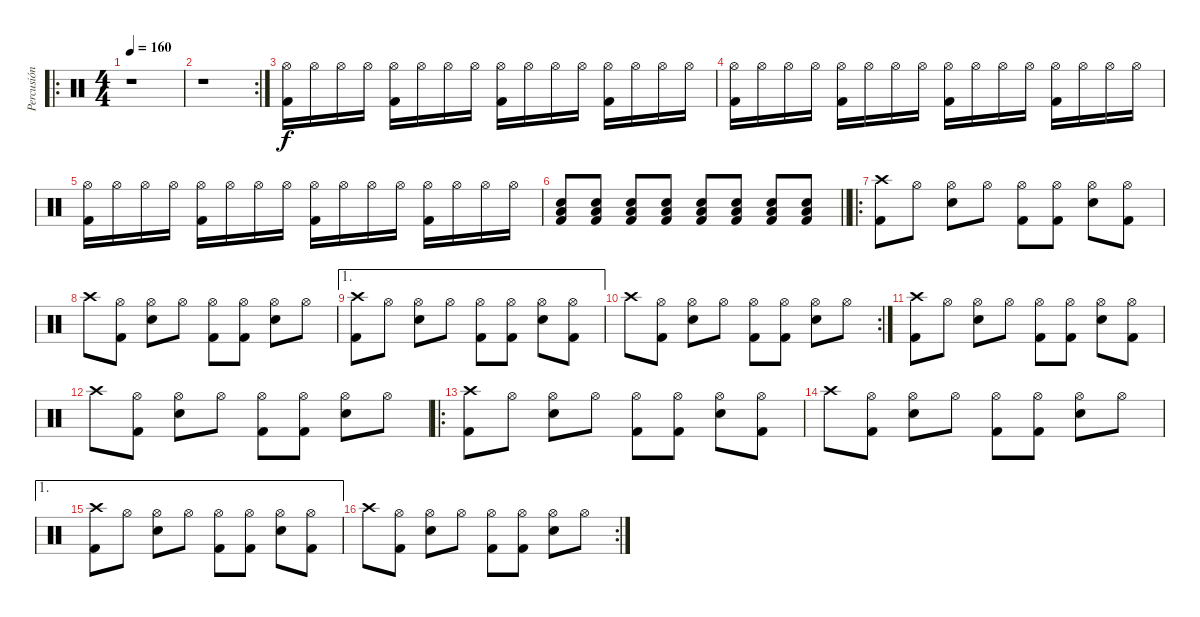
\track ("Percusión (Nevi)" "Percusión ") {instrument percussion}
\staff {score}
\articulation defaults
\ro
\ts (4 4)
\tempo 160
\clef neutral
\ks c
r.1{dy f} |
\rc 2
r.1 |
("Kick (hit) 2" "Hi-Hat (open)").16 "Hi-Hat (open)".16 "Hi-Hat (open)".16 "Hi-Hat (open)".16 ("Kick (hit) 2" "Hi-Hat (open)").16 "Hi-Hat (open)".16 "Hi-Hat (open)".16 "Hi-Hat (open)".16 ("Kick (hit) 2" "Hi-Hat (open)").16 "Hi-Hat (open)".16 "Hi-Hat (open)".16 "Hi-Hat (open)".16 ("Kick (hit) 2" "Hi-Hat (open)").16 "Hi-Hat (open)".16 "Hi-Hat (open)".16 "Hi-Hat (open)".16 |
("Kick (hit) 2" "Hi-Hat (open)").16 "Hi-Hat (open)".16 "Hi-Hat (open)".16 "Hi-Hat (open)".16 ("Kick (hit) 2" "Hi-Hat (open)").16 "Hi-Hat (open)".16 "Hi-Hat (open)".16 "Hi-Hat (open)".16 ("Kick (hit) 2" "Hi-Hat (open)").16 "Hi-Hat (open)".16 "Hi-Hat (open)".16 "Hi-Hat (open)".16 ("Kick (hit) 2" "Hi-Hat (open)").16 "Hi-Hat (open)".16 "Hi-Hat (open)".16 "Hi-Hat (open)".16 |
("Kick (hit) 2" "Hi-Hat (open)").16 "Hi-Hat (open)".16 "Hi-Hat (open)".16 "Hi-Hat (open)".16 ("Kick (hit) 2" "Hi-Hat (open)").16 "Hi-Hat (open)".16 "Hi-Hat (open)".16 "Hi-Hat (open)".16 ("Kick (hit) 2" "Hi-Hat (open)").16 "Hi-Hat (open)".16 "Hi-Hat (open)".16 "Hi-Hat (open)".16 ("Kick (hit) 2" "Hi-Hat (open)").16 "Hi-Hat (open)".16 "Hi-Hat (open)".16 "Hi-Hat (open)".16 |
\barLineRight lightlight
("Kick (hit) 2" "Low Tom (hit)" "Snare (hit) 2").8 ("Kick (hit) 2" "Low Tom (hit)" "Snare (hit) 2").8 ("Kick (hit) 2" "Low Tom (hit)" "Snare (hit) 2").8 ("Kick (hit) 2" "Low Tom (hit)" "Snare (hit) 2").8 ("Kick (hit) 2" "Low Tom (hit)" "Snare (hit) 2").8 ("Kick (hit) 2" "Low Tom (hit)" "Snare (hit) 2").8 ("Kick (hit) 2" "Low Tom (hit)" "Snare (hit) 2").8 ("Kick (hit) 2" "Low Tom (hit)" "Snare (hit) 2").8 |
\ro
("Kick (hit) 2" "Crash high (hit)").8 "Hi-Hat (open)".8 ("Hi-Hat (open)" "Snare (hit) 2").8 "Hi-Hat (open)".8 ("Kick (hit) 2" "Hi-Hat (open)").8 ("Kick (hit) 2" "Hi-Hat (open)").8 ("Hi-Hat (open)" "Snare (hit) 2").8 ("Kick (hit) 2" "Hi-Hat (open)").8 |
"Crash high (hit)".8 ("Kick (hit) 2" "Hi-Hat (open)").8 ("Hi-Hat (open)" "Snare (hit) 2").8 "Hi-Hat (open)".8 ("Kick (hit) 2" "Hi-Hat (open)").8 ("Kick (hit) 2" "Hi-Hat (open)").8 ("Hi-Hat (open)" "Snare (hit) 2").8 "Hi-Hat (open)".8 |
\ae 1
("Kick (hit) 2" "Crash high (hit)").8 "Hi-Hat (open)".8 ("Hi-Hat (open)" "Snare (hit) 2").8 "Hi-Hat (open)".8 ("Kick (hit) 2" "Hi-Hat (open)").8 ("Kick (hit) 2" "Hi-Hat (open)").8 ("Hi-Hat (open)" "Snare (hit) 2").8 ("Kick (hit) 2" "Hi-Hat (open)").8 |
\rc 2 "Crash high (hit)".8
("Kick (hit) 2" "Hi-Hat (open)").8 ("Hi-Hat (open)" "Snare (hit) 2").8 "Hi-Hat (open)".8 ("Kick (hit) 2" "Hi-Hat (open)").8 ("Kick (hit) 2" "Hi-Hat (open)").8 ("Hi-Hat (open)" "Snare (hit) 2").8 "Hi-Hat (open)".8 |
("Kick (hit) 2" "Crash high (hit)").8 "Hi-Hat (open)".8 ("Hi-Hat (open)" "Snare (hit) 2").8 "Hi-Hat (open)".8 ("Kick (hit) 2" "Hi-Hat (open)").8 ("Kick (hit) 2" "Hi-Hat (open)").8 ("Hi-Hat (open)" "Snare (hit) 2").8 ("Kick (hit) 2" "Hi-Hat (open)").8 |
"Crash high (hit)".8 ("Kick (hit) 2" "Hi-Hat (open)").8 ("Hi-Hat (open)" "Snare (hit) 2").8 "Hi-Hat (open)".8 ("Kick (hit) 2" "Hi-Hat (open)").8 ("Kick (hit) 2" "Hi-Hat (open)").8 ("Hi-Hat (open)" "Snare (hit) 2").8 "Hi-Hat (open)".8 |
\ro
("Kick (hit) 2" "Crash high (hit)").8 "Hi-Hat (open)".8 ("Hi-Hat (open)" "Snare (hit) 2").8 "Hi-Hat (open)".8 ("Kick (hit) 2" "Hi-Hat (open)").8 ("Kick (hit) 2" "Hi-Hat (open)").8 ("Hi-Hat (open)" "Snare (hit) 2").8 ("Kick (hit) 2" "Hi-Hat (open)").8 |
"Crash high (hit)".8 ("Kick (hit) 2" "Hi-Hat (open)").8 ("Hi-Hat (open)" "Snare (hit) 2").8 "Hi-Hat (open)".8 ("Kick (hit) 2" "Hi-Hat (open)").8 ("Kick (hit) 2" "Hi-Hat (open)").8 ("Hi-Hat (open)" "Snare (hit) 2").8 "Hi-Hat (open)".8 |
\ae 1
("Kick (hit) 2" "Crash high (hit)").8 "Hi-Hat (open)".8 ("Hi-Hat (open)" "Snare (hit) 2").8 "Hi-Hat (open)".8 ("Kick (hit) 2" "Hi-Hat (open)").8 ("Kick (hit) 2" "Hi-Hat (open)").8 ("Hi-Hat (open)" "Snare (hit) 2").8 ("Kick (hit) 2" "Hi-Hat (open)").8 |
\rc 2 "Crash high (hit)".8
("Kick (hit) 2" "Hi-Hat (open)").8 ("Hi-Hat (open)" "Snare (hit) 2").8 "Hi-Hat (open)".8 ("Kick (hit) 2" "Hi-Hat (open)").8 ("Kick (hit) 2" "Hi-Hat (open)").8 ("Hi-Hat (open)" "Snare (hit) 2").8 "Hi-Hat (open)".8
